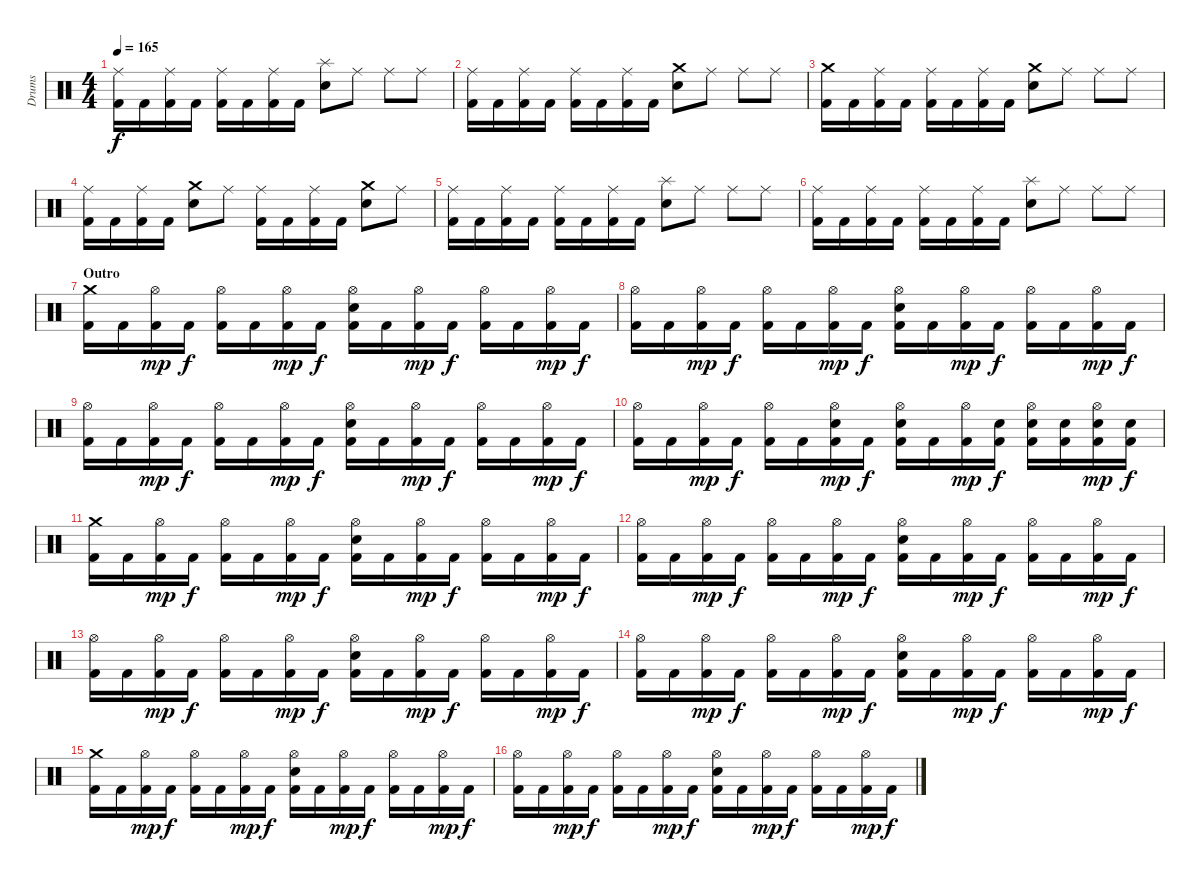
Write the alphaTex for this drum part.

\track ("Drums" "Drums") {instrument percussion}
\staff {score}
\articulation defaults
\ts (4 4)
\tempo 165
\clef neutral
\ks c
("Kick (hit) 2" "Ride (middle)").16{dy f} "Kick (hit) 2".16 ("Kick (hit) 2" "Ride (middle)").16 "Kick (hit) 2".16 ("Kick (hit) 2" "Ride (middle)").16 "Kick (hit) 2".16 ("Kick (hit) 2" "Ride (middle)").16 "Kick (hit) 2".16 ("Electric Snare (hit)" "Splash (hit)").8 "Ride (middle)".8 "Ride (middle)".8 "Ride (middle)".8 |
("Kick (hit) 2" "Ride (middle)").16 "Kick (hit) 2".16 ("Kick (hit) 2" "Ride (middle)").16 "Kick (hit) 2".16 ("Kick (hit) 2" "Ride (middle)").16 "Kick (hit) 2".16 ("Kick (hit) 2" "Ride (middle)").16 "Kick (hit) 2".16 ("Electric Snare (hit)" "Crash medium (hit)").8 "Ride (middle)".8 "Ride (middle)".8 "Ride (middle)".8 |
("Kick (hit) 2" "Crash medium (hit)").16 "Kick (hit) 2".16 ("Kick (hit) 2" "Ride (middle)").16 "Kick (hit) 2".16 ("Kick (hit) 2" "Ride (middle)").16 "Kick (hit) 2".16 ("Kick (hit) 2" "Ride (middle)").16 "Kick (hit) 2".16 ("Electric Snare (hit)" "Crash medium (hit)").8 "Ride (middle)".8 "Ride (middle)".8 "Ride (middle)".8 |
("Kick (hit) 2" "Ride (middle)").16 "Kick (hit) 2".16 ("Kick (hit) 2" "Ride (middle)").16 "Kick (hit) 2".16 ("Electric Snare (hit)" "Crash medium (hit)").8 "Ride (middle)".8 ("Kick (hit) 2" "Ride (middle)").16 "Kick (hit) 2".16 ("Kick (hit) 2" "Ride (middle)").16 "Kick (hit) 2".16 ("Electric Snare (hit)" "Crash medium (hit)").8 "Ride (middle)".8 |
("Kick (hit) 2" "Ride (middle)").16 "Kick (hit) 2".16 ("Kick (hit) 2" "Ride (middle)").16 "Kick (hit) 2".16 ("Kick (hit) 2" "Ride (middle)").16 "Kick (hit) 2".16 ("Kick (hit) 2" "Ride (middle)").16 "Kick (hit) 2".16 ("Electric Snare (hit)" "Splash (hit)").8 "Ride (middle)".8 "Ride (middle)".8 "Ride (middle)".8 |
("Kick (hit) 2" "Ride (middle)").16 "Kick (hit) 2".16 ("Kick (hit) 2" "Ride (middle)").16 "Kick (hit) 2".16 ("Kick (hit) 2" "Ride (middle)").16 "Kick (hit) 2".16 ("Kick (hit) 2" "Ride (middle)").16 "Kick (hit) 2".16 ("Electric Snare (hit)" "Splash (hit)").8 "Ride (middle)".8 "Ride (middle)".8 "Ride (middle)".8 |
\section ("" "Outro")
("Kick (hit) 2" "Crash medium (hit)").16 "Kick (hit) 2".16 ("Kick (hit) 2" "Hi-Hat (open)").16{dy mp} "Kick (hit) 2".16{dy f} ("Kick (hit) 2" "Hi-Hat (open)").16 "Kick (hit) 2".16 ("Kick (hit) 2" "Hi-Hat (open)").16{dy mp} "Kick (hit) 2".16{dy f} ("Kick (hit) 2" "Electric Snare (hit)" "Hi-Hat (open)").16 "Kick (hit) 2".16 ("Kick (hit) 2" "Hi-Hat (open)").16{dy mp} "Kick (hit) 2".16{dy f} ("Kick (hit) 2" "Hi-Hat (open)").16 "Kick (hit) 2".16 ("Kick (hit) 2" "Hi-Hat (open)").16{dy mp} "Kick (hit) 2".16{dy f} |
("Kick (hit) 2" "Hi-Hat (open)").16 "Kick (hit) 2".16 ("Kick (hit) 2" "Hi-Hat (open)").16{dy mp} "Kick (hit) 2".16{dy f} ("Kick (hit) 2" "Hi-Hat (open)").16 "Kick (hit) 2".16 ("Kick (hit) 2" "Hi-Hat (open)").16{dy mp} "Kick (hit) 2".16{dy f} ("Kick (hit) 2" "Electric Snare (hit)" "Hi-Hat (open)").16 "Kick (hit) 2".16 ("Kick (hit) 2" "Hi-Hat (open)").16{dy mp} "Kick (hit) 2".16{dy f} ("Kick (hit) 2" "Hi-Hat (open)").16 "Kick (hit) 2".16 ("Kick (hit) 2" "Hi-Hat (open)").16{dy mp} "Kick (hit) 2".16{dy f} |
("Kick (hit) 2" "Hi-Hat (open)").16 "Kick (hit) 2".16 ("Kick (hit) 2" "Hi-Hat (open)").16{dy mp} "Kick (hit) 2".16{dy f} ("Kick (hit) 2" "Hi-Hat (open)").16 "Kick (hit) 2".16 ("Kick (hit) 2" "Hi-Hat (open)").16{dy mp} "Kick (hit) 2".16{dy f} ("Kick (hit) 2" "Electric Snare (hit)" "Hi-Hat (open)").16 "Kick (hit) 2".16 ("Kick (hit) 2" "Hi-Hat (open)").16{dy mp} "Kick (hit) 2".16{dy f} ("Kick (hit) 2" "Hi-Hat (open)").16 "Kick (hit) 2".16 ("Kick (hit) 2" "Hi-Hat (open)").16{dy mp} "Kick (hit) 2".16{dy f} |
("Kick (hit) 2" "Hi-Hat (open)").16 "Kick (hit) 2".16 ("Kick (hit) 2" "Hi-Hat (open)").16{dy mp} "Kick (hit) 2".16{dy f} ("Kick (hit) 2" "Hi-Hat (open)").16 "Kick (hit) 2".16 ("Kick (hit) 2" "Electric Snare (hit)" "Hi-Hat (open)").16{dy mp} "Kick (hit) 2".16{dy f} ("Kick (hit) 2" "Electric Snare (hit)" "Hi-Hat (open)").16 "Kick (hit) 2".16 ("Kick (hit) 2" "Hi-Hat (open)").16{dy mp} ("Kick (hit) 2" "Electric Snare (hit)").16{dy f} ("Kick (hit) 2" "Electric Snare (hit)" "Hi-Hat (open)").16 ("Kick (hit) 2" "Electric Snare (hit)").16 ("Kick (hit) 2" "Electric Snare (hit)" "Hi-Hat (open)").16{dy mp} ("Kick (hit) 2" "Electric Snare (hit)").16{dy f} |
("Kick (hit) 2" "Crash medium (hit)").16 "Kick (hit) 2".16 ("Kick (hit) 2" "Hi-Hat (open)").16{dy mp} "Kick (hit) 2".16{dy f} ("Kick (hit) 2" "Hi-Hat (open)").16 "Kick (hit) 2".16 ("Kick (hit) 2" "Hi-Hat (open)").16{dy mp} "Kick (hit) 2".16{dy f} ("Kick (hit) 2" "Electric Snare (hit)" "Hi-Hat (open)").16 "Kick (hit) 2".16 ("Kick (hit) 2" "Hi-Hat (open)").16{dy mp} "Kick (hit) 2".16{dy f} ("Kick (hit) 2" "Hi-Hat (open)").16 "Kick (hit) 2".16 ("Kick (hit) 2" "Hi-Hat (open)").16{dy mp} "Kick (hit) 2".16{dy f} |
("Kick (hit) 2" "Hi-Hat (open)").16 "Kick (hit) 2".16 ("Kick (hit) 2" "Hi-Hat (open)").16{dy mp} "Kick (hit) 2".16{dy f} ("Kick (hit) 2" "Hi-Hat (open)").16 "Kick (hit) 2".16 ("Kick (hit) 2" "Hi-Hat (open)").16{dy mp} "Kick (hit) 2".16{dy f} ("Kick (hit) 2" "Electric Snare (hit)" "Hi-Hat (open)").16 "Kick (hit) 2".16 ("Kick (hit) 2" "Hi-Hat (open)").16{dy mp} "Kick (hit) 2".16{dy f} ("Kick (hit) 2" "Hi-Hat (open)").16 "Kick (hit) 2".16 ("Kick (hit) 2" "Hi-Hat (open)").16{dy mp} "Kick (hit) 2".16{dy f} |
("Kick (hit) 2" "Hi-Hat (open)").16 "Kick (hit) 2".16 ("Kick (hit) 2" "Hi-Hat (open)").16{dy mp} "Kick (hit) 2".16{dy f} ("Kick (hit) 2" "Hi-Hat (open)").16 "Kick (hit) 2".16 ("Kick (hit) 2" "Hi-Hat (open)").16{dy mp} "Kick (hit) 2".16{dy f} ("Kick (hit) 2" "Electric Snare (hit)" "Hi-Hat (open)").16 "Kick (hit) 2".16 ("Kick (hit) 2" "Hi-Hat (open)").16{dy mp} "Kick (hit) 2".16{dy f} ("Kick (hit) 2" "Hi-Hat (open)").16 "Kick (hit) 2".16 ("Kick (hit) 2" "Hi-Hat (open)").16{dy mp} "Kick (hit) 2".16{dy f} |
("Kick (hit) 2" "Hi-Hat (open)").16 "Kick (hit) 2".16 ("Kick (hit) 2" "Hi-Hat (open)").16{dy mp} "Kick (hit) 2".16{dy f} ("Kick (hit) 2" "Hi-Hat (open)").16 "Kick (hit) 2".16 ("Kick (hit) 2" "Hi-Hat (open)").16{dy mp} "Kick (hit) 2".16{dy f} ("Kick (hit) 2" "Electric Snare (hit)" "Hi-Hat (open)").16 "Kick (hit) 2".16 ("Kick (hit) 2" "Hi-Hat (open)").16{dy mp} "Kick (hit) 2".16{dy f} ("Kick (hit) 2" "Hi-Hat (open)").16 "Kick (hit) 2".16 ("Kick (hit) 2" "Hi-Hat (open)").16{dy mp} "Kick (hit) 2".16{dy f} |
("Kick (hit) 2" "Crash medium (hit)").16 "Kick (hit) 2".16 ("Kick (hit) 2" "Hi-Hat (open)").16{dy mp} "Kick (hit) 2".16{dy f} ("Kick (hit) 2" "Hi-Hat (open)").16 "Kick (hit) 2".16 ("Kick (hit) 2" "Hi-Hat (open)").16{dy mp} "Kick (hit) 2".16{dy f} ("Kick (hit) 2" "Electric Snare (hit)" "Hi-Hat (open)").16 "Kick (hit) 2".16 ("Kick (hit) 2" "Hi-Hat (open)").16{dy mp} "Kick (hit) 2".16{dy f} ("Kick (hit) 2" "Hi-Hat (open)").16 "Kick (hit) 2".16 ("Kick (hit) 2" "Hi-Hat (open)").16{dy mp} "Kick (hit) 2".16{dy f} |
("Kick (hit) 2" "Hi-Hat (open)").16 "Kick (hit) 2".16 ("Kick (hit) 2" "Hi-Hat (open)").16{dy mp} "Kick (hit) 2".16{dy f} ("Kick (hit) 2" "Hi-Hat (open)").16 "Kick (hit) 2".16 ("Kick (hit) 2" "Hi-Hat (open)").16{dy mp} "Kick (hit) 2".16{dy f} ("Kick (hit) 2" "Electric Snare (hit)" "Hi-Hat (open)").16 "Kick (hit) 2".16 ("Kick (hit) 2" "Hi-Hat (open)").16{dy mp} "Kick (hit) 2".16{dy f} ("Kick (hit) 2" "Hi-Hat (open)").16 "Kick (hit) 2".16 ("Kick (hit) 2" "Hi-Hat (open)").16{dy mp} "Kick (hit) 2".16{dy f}
